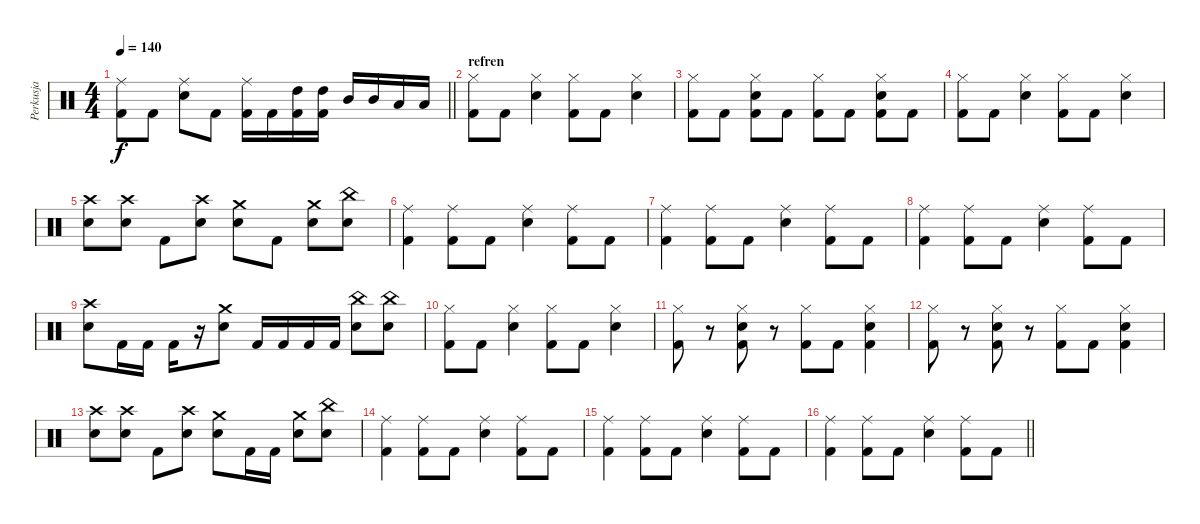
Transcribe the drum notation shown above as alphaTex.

\track ("Perkusja" "Perkusja") {instrument percussion}
\staff {score}
\articulation defaults
\ts (4 4)
\tempo 140
\clef neutral
\barLineRight lightlight
\ks c
("Ride (middle)" "Kick (hit) 2").8{dy f} "Kick (hit) 2".8 ("Ride (middle)" "Snare (hit) 2").8 "Kick (hit) 2".8 ("Ride (middle)" "Kick (hit) 2").16 "Kick (hit) 2".16 ("High Tom (hit)" "Kick (hit) 2").16 ("High Tom (hit)" "Kick (hit) 2").16 "Mid Tom (hit)".16 "Mid Tom (hit)".16 "Low Tom (hit)".16 "Low Tom (hit)".16 |
\section ("" "refren")
("Hi-Hat (closed)" "Kick (hit) 2").8 "Kick (hit) 2".8 ("Hi-Hat (closed)" "Snare (hit) 2").4 ("Hi-Hat (closed)" "Kick (hit) 2").8 "Kick (hit) 2".8 ("Hi-Hat (closed)" "Snare (hit) 2").4 |
("Hi-Hat (closed)" "Kick (hit) 2").8 "Kick (hit) 2".8 ("Hi-Hat (closed)" "Kick (hit) 2" "Snare (hit) 2").8 "Kick (hit) 2".8 ("Hi-Hat (closed)" "Kick (hit) 2").8 "Kick (hit) 2".8 ("Hi-Hat (closed)" "Kick (hit) 2" "Snare (hit) 2").8 "Kick (hit) 2".8 |
("Hi-Hat (closed)" "Kick (hit) 2").8 "Kick (hit) 2".8 ("Hi-Hat (closed)" "Snare (hit) 2").4 ("Hi-Hat (closed)" "Kick (hit) 2").8 "Kick (hit) 2".8 ("Hi-Hat (closed)" "Snare (hit) 2").4 |
("Snare (hit) 2" "Crash high (hit)").8 ("Snare (hit) 2" "Crash high (hit)").8 "Kick (hit) 2".8 ("Snare (hit) 2" "Crash high (hit)").8 ("Snare (hit) 2" "Crash medium (hit)").8 "Kick (hit) 2".8 ("Snare (hit) 2" "Crash medium (hit)").8 ("Snare (hit) 2" "China (hit)").8 |
("Ride (middle)" "Kick (hit) 2").4 ("Ride (middle)" "Kick (hit) 2").8 "Kick (hit) 2".8 ("Ride (middle)" "Snare (hit) 2").4 ("Ride (middle)" "Kick (hit) 2").8 "Kick (hit) 2".8 |
("Ride (middle)" "Kick (hit) 2").4 ("Ride (middle)" "Kick (hit) 2").8 "Kick (hit) 2".8 ("Ride (middle)" "Snare (hit) 2").4 ("Ride (middle)" "Kick (hit) 2").8 "Kick (hit) 2".8 |
("Ride (middle)" "Kick (hit) 2").4 ("Ride (middle)" "Kick (hit) 2").8 "Kick (hit) 2".8 ("Ride (middle)" "Snare (hit) 2").4 ("Ride (middle)" "Kick (hit) 2").8 "Kick (hit) 2".8 |
("Crash high (hit)" "Snare (hit) 2").8 "Kick (hit) 2".16 "Kick (hit) 2".16 "Kick (hit) 2".16 r.16 ("Crash medium (hit)" "Snare (hit) 2").8 "Kick (hit) 2".16 "Kick (hit) 2".16 "Kick (hit) 2".16 "Kick (hit) 2".16 ("China (hit)" "Snare (hit) 2").8 ("China (hit)" "Snare (hit) 2").8 |
("Hi-Hat (closed)" "Kick (hit) 2").8 "Kick (hit) 2".8 ("Hi-Hat (closed)" "Snare (hit) 2").4 ("Hi-Hat (closed)" "Kick (hit) 2").8 "Kick (hit) 2".8 ("Hi-Hat (closed)" "Snare (hit) 2").4 |
("Hi-Hat (closed)" "Kick (hit) 2").8 r.8 ("Hi-Hat (closed)" "Kick (hit) 2" "Snare (hit) 2").8 r.8 ("Hi-Hat (closed)" "Kick (hit) 2").8 "Kick (hit) 2".8 ("Hi-Hat (closed)" "Kick (hit) 2" "Snare (hit) 2").4 |
("Hi-Hat (closed)" "Kick (hit) 2").8 r.8 ("Hi-Hat (closed)" "Kick (hit) 2" "Snare (hit) 2").8 r.8 ("Hi-Hat (closed)" "Kick (hit) 2").8 "Kick (hit) 2".8 ("Hi-Hat (closed)" "Kick (hit) 2" "Snare (hit) 2").4 |
("Snare (hit) 2" "Crash high (hit)").8 ("Snare (hit) 2" "Crash high (hit)").8 "Kick (hit) 2".8 ("Snare (hit) 2" "Crash high (hit)").8 ("Snare (hit) 2" "Crash medium (hit)").8 "Kick (hit) 2".16 "Kick (hit) 2".16 ("Snare (hit) 2" "Crash medium (hit)").8 ("Snare (hit) 2" "China (hit)").8 |
("Ride (middle)" "Kick (hit) 2").4 ("Ride (middle)" "Kick (hit) 2").8 "Kick (hit) 2".8 ("Ride (middle)" "Snare (hit) 2").4 ("Ride (middle)" "Kick (hit) 2").8 "Kick (hit) 2".8 |
("Ride (middle)" "Kick (hit) 2").4 ("Ride (middle)" "Kick (hit) 2").8 "Kick (hit) 2".8 ("Ride (middle)" "Snare (hit) 2").4 ("Ride (middle)" "Kick (hit) 2").8 "Kick (hit) 2".8 |
\barLineRight lightlight
("Ride (middle)" "Kick (hit) 2").4 ("Ride (middle)" "Kick (hit) 2").8 "Kick (hit) 2".8 ("Ride (middle)" "Snare (hit) 2").4 ("Ride (middle)" "Kick (hit) 2").8 "Kick (hit) 2".8
